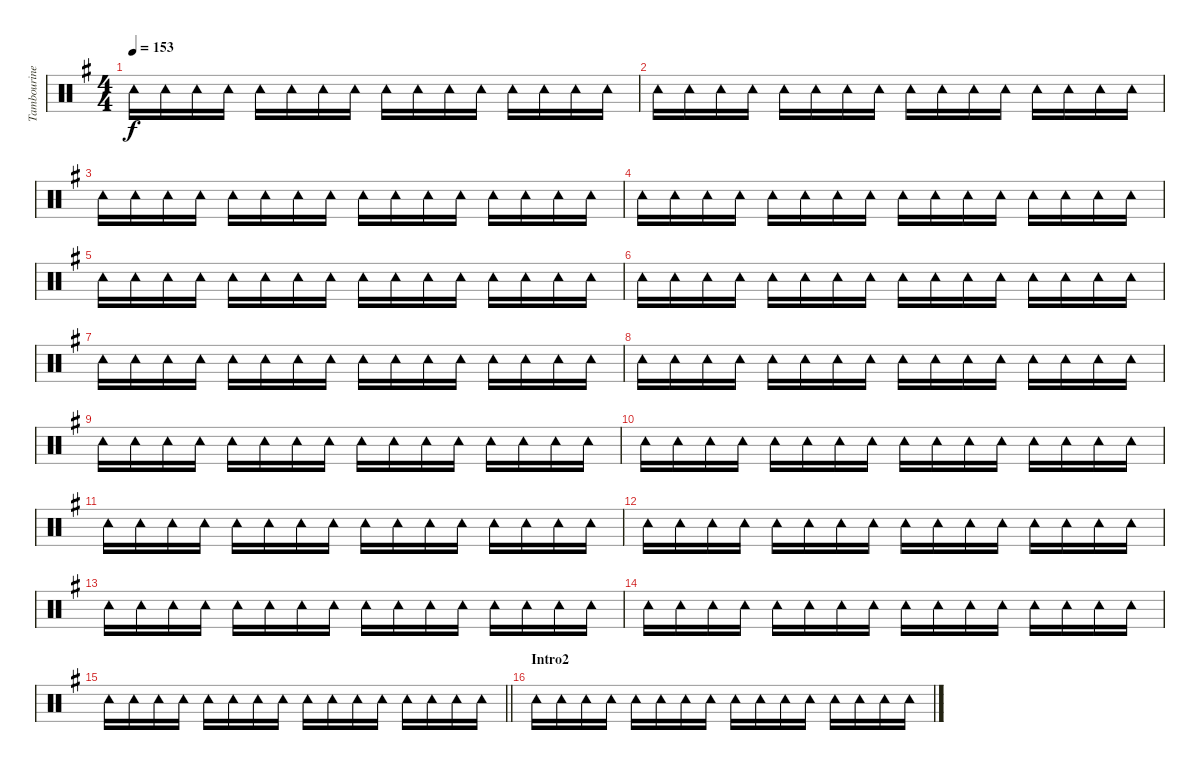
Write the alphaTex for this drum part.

\track ("Tambourine" "Tambourine") {instrument percussion}
\staff {score}
\articulation defaults
\ts (4 4)
\tempo 153
\clef neutral
\ks g "Tambourine (hit)".16{dy f} "Tambourine (hit)".16 "Tambourine (hit)".16 "Tambourine (hit)".16 "Tambourine (hit)".16 "Tambourine (hit)".16 "Tambourine (hit)".16 "Tambourine (hit)".16 "Tambourine (hit)".16 "Tambourine (hit)".16 "Tambourine (hit)".16 "Tambourine (hit)".16 "Tambourine (hit)".16 "Tambourine (hit)".16 "Tambourine (hit)".16 "Tambourine (hit)".16
|
"Tambourine (hit)".16 "Tambourine (hit)".16 "Tambourine (hit)".16 "Tambourine (hit)".16 "Tambourine (hit)".16 "Tambourine (hit)".16 "Tambourine (hit)".16 "Tambourine (hit)".16 "Tambourine (hit)".16 "Tambourine (hit)".16 "Tambourine (hit)".16 "Tambourine (hit)".16 "Tambourine (hit)".16 "Tambourine (hit)".16 "Tambourine (hit)".16 "Tambourine (hit)".16 |
"Tambourine (hit)".16 "Tambourine (hit)".16 "Tambourine (hit)".16 "Tambourine (hit)".16 "Tambourine (hit)".16 "Tambourine (hit)".16 "Tambourine (hit)".16 "Tambourine (hit)".16 "Tambourine (hit)".16 "Tambourine (hit)".16 "Tambourine (hit)".16 "Tambourine (hit)".16 "Tambourine (hit)".16 "Tambourine (hit)".16 "Tambourine (hit)".16 "Tambourine (hit)".16 |
"Tambourine (hit)".16 "Tambourine (hit)".16 "Tambourine (hit)".16 "Tambourine (hit)".16 "Tambourine (hit)".16 "Tambourine (hit)".16 "Tambourine (hit)".16 "Tambourine (hit)".16 "Tambourine (hit)".16 "Tambourine (hit)".16 "Tambourine (hit)".16 "Tambourine (hit)".16 "Tambourine (hit)".16 "Tambourine (hit)".16 "Tambourine (hit)".16 "Tambourine (hit)".16 |
"Tambourine (hit)".16 "Tambourine (hit)".16 "Tambourine (hit)".16 "Tambourine (hit)".16 "Tambourine (hit)".16 "Tambourine (hit)".16 "Tambourine (hit)".16 "Tambourine (hit)".16 "Tambourine (hit)".16 "Tambourine (hit)".16 "Tambourine (hit)".16 "Tambourine (hit)".16 "Tambourine (hit)".16 "Tambourine (hit)".16 "Tambourine (hit)".16 "Tambourine (hit)".16 |
"Tambourine (hit)".16 "Tambourine (hit)".16 "Tambourine (hit)".16 "Tambourine (hit)".16 "Tambourine (hit)".16 "Tambourine (hit)".16 "Tambourine (hit)".16 "Tambourine (hit)".16 "Tambourine (hit)".16 "Tambourine (hit)".16 "Tambourine (hit)".16 "Tambourine (hit)".16 "Tambourine (hit)".16 "Tambourine (hit)".16 "Tambourine (hit)".16 "Tambourine (hit)".16 |
"Tambourine (hit)".16 "Tambourine (hit)".16 "Tambourine (hit)".16 "Tambourine (hit)".16 "Tambourine (hit)".16 "Tambourine (hit)".16 "Tambourine (hit)".16 "Tambourine (hit)".16 "Tambourine (hit)".16 "Tambourine (hit)".16 "Tambourine (hit)".16 "Tambourine (hit)".16 "Tambourine (hit)".16 "Tambourine (hit)".16 "Tambourine (hit)".16 "Tambourine (hit)".16 |
"Tambourine (hit)".16 "Tambourine (hit)".16 "Tambourine (hit)".16 "Tambourine (hit)".16 "Tambourine (hit)".16 "Tambourine (hit)".16 "Tambourine (hit)".16 "Tambourine (hit)".16 "Tambourine (hit)".16 "Tambourine (hit)".16 "Tambourine (hit)".16 "Tambourine (hit)".16 "Tambourine (hit)".16 "Tambourine (hit)".16 "Tambourine (hit)".16 "Tambourine (hit)".16 |
"Tambourine (hit)".16 "Tambourine (hit)".16 "Tambourine (hit)".16 "Tambourine (hit)".16 "Tambourine (hit)".16 "Tambourine (hit)".16 "Tambourine (hit)".16 "Tambourine (hit)".16 "Tambourine (hit)".16 "Tambourine (hit)".16 "Tambourine (hit)".16 "Tambourine (hit)".16 "Tambourine (hit)".16 "Tambourine (hit)".16 "Tambourine (hit)".16 "Tambourine (hit)".16 |
"Tambourine (hit)".16 "Tambourine (hit)".16 "Tambourine (hit)".16 "Tambourine (hit)".16 "Tambourine (hit)".16 "Tambourine (hit)".16 "Tambourine (hit)".16 "Tambourine (hit)".16 "Tambourine (hit)".16 "Tambourine (hit)".16 "Tambourine (hit)".16 "Tambourine (hit)".16 "Tambourine (hit)".16 "Tambourine (hit)".16 "Tambourine (hit)".16 "Tambourine (hit)".16 |
"Tambourine (hit)".16 "Tambourine (hit)".16 "Tambourine (hit)".16 "Tambourine (hit)".16 "Tambourine (hit)".16 "Tambourine (hit)".16 "Tambourine (hit)".16 "Tambourine (hit)".16 "Tambourine (hit)".16 "Tambourine (hit)".16 "Tambourine (hit)".16 "Tambourine (hit)".16 "Tambourine (hit)".16 "Tambourine (hit)".16 "Tambourine (hit)".16 "Tambourine (hit)".16 |
"Tambourine (hit)".16 "Tambourine (hit)".16 "Tambourine (hit)".16 "Tambourine (hit)".16 "Tambourine (hit)".16 "Tambourine (hit)".16 "Tambourine (hit)".16 "Tambourine (hit)".16 "Tambourine (hit)".16 "Tambourine (hit)".16 "Tambourine (hit)".16 "Tambourine (hit)".16 "Tambourine (hit)".16 "Tambourine (hit)".16 "Tambourine (hit)".16 "Tambourine (hit)".16 |
"Tambourine (hit)".16 "Tambourine (hit)".16 "Tambourine (hit)".16 "Tambourine (hit)".16 "Tambourine (hit)".16 "Tambourine (hit)".16 "Tambourine (hit)".16 "Tambourine (hit)".16 "Tambourine (hit)".16 "Tambourine (hit)".16 "Tambourine (hit)".16 "Tambourine (hit)".16 "Tambourine (hit)".16 "Tambourine (hit)".16 "Tambourine (hit)".16 "Tambourine (hit)".16 |
"Tambourine (hit)".16 "Tambourine (hit)".16 "Tambourine (hit)".16 "Tambourine (hit)".16 "Tambourine (hit)".16 "Tambourine (hit)".16 "Tambourine (hit)".16 "Tambourine (hit)".16 "Tambourine (hit)".16 "Tambourine (hit)".16 "Tambourine (hit)".16 "Tambourine (hit)".16 "Tambourine (hit)".16 "Tambourine (hit)".16 "Tambourine (hit)".16 "Tambourine (hit)".16 |
\barLineRight lightlight "Tambourine (hit)".16 "Tambourine (hit)".16 "Tambourine (hit)".16 "Tambourine (hit)".16 "Tambourine (hit)".16 "Tambourine (hit)".16 "Tambourine (hit)".16 "Tambourine (hit)".16 "Tambourine (hit)".16 "Tambourine (hit)".16 "Tambourine (hit)".16 "Tambourine (hit)".16 "Tambourine (hit)".16 "Tambourine (hit)".16 "Tambourine (hit)".16 "Tambourine (hit)".16
|
\section ("" "Intro2")
"Tambourine (hit)".16 "Tambourine (hit)".16 "Tambourine (hit)".16 "Tambourine (hit)".16 "Tambourine (hit)".16 "Tambourine (hit)".16 "Tambourine (hit)".16 "Tambourine (hit)".16 "Tambourine (hit)".16 "Tambourine (hit)".16 "Tambourine (hit)".16 "Tambourine (hit)".16 "Tambourine (hit)".16 "Tambourine (hit)".16 "Tambourine (hit)".16 "Tambourine (hit)".16
